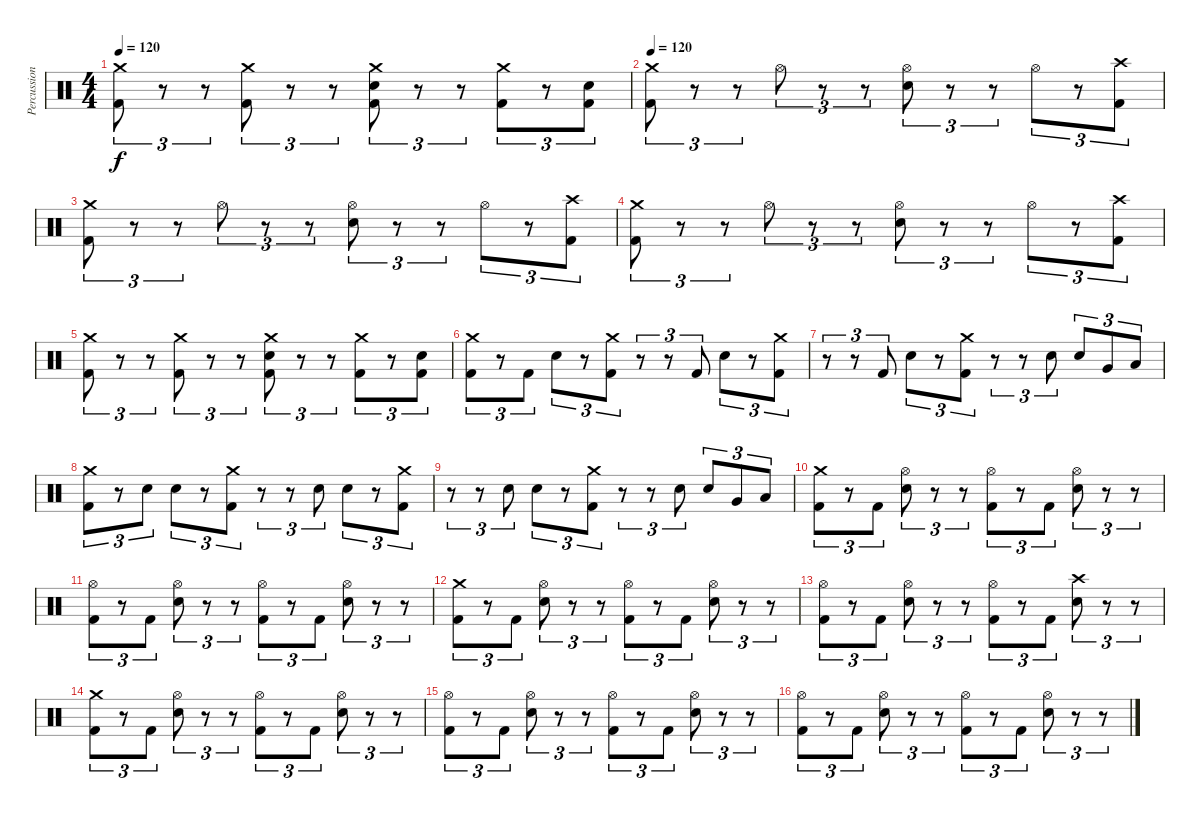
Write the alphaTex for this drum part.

\track ("Percussion" "Percussion") {instrument percussion}
\staff {score}
\articulation defaults
\ts (4 4)
\tempo 120
\clef neutral
\ks c
("Crash medium (hit)" "Kick (hit) 2").8{tu (3 2) dy f} r.8{tu (3 2)} r.8{tu (3 2)} ("Crash medium (hit)" "Kick (hit) 2").8{tu (3 2)} r.8{tu (3 2)} r.8{tu (3 2)} ("Crash medium (hit)" "Electric Snare (hit)" "Kick (hit) 2").8{tu (3 2)} r.8{tu (3 2)} r.8{tu (3 2)} ("Crash medium (hit)" "Kick (hit) 2").8{tu (3 2)} r.8{tu (3 2)} ("Electric Snare (hit)" "Kick (hit) 2").8{tu (3 2)} |
\tempo 120
("Crash medium (hit)" "Kick (hit) 2").8{tu (3 2)} r.8{tu (3 2)} r.8{tu (3 2)} "Hi-Hat (open)".8{tu (3 2)} r.8{tu (3 2)} r.8{tu (3 2)} ("Hi-Hat (open)" "Electric Snare (hit)").8{tu (3 2)} r.8{tu (3 2)} r.8{tu (3 2)} "Hi-Hat (open)".8{tu (3 2)} r.8{tu (3 2)} ("Crash high (hit)" "Kick (hit) 2").8{tu (3 2)} |
("Crash medium (hit)" "Kick (hit) 2").8{tu (3 2)} r.8{tu (3 2)} r.8{tu (3 2)} "Hi-Hat (open)".8{tu (3 2)} r.8{tu (3 2)} r.8{tu (3 2)} ("Hi-Hat (open)" "Electric Snare (hit)").8{tu (3 2)} r.8{tu (3 2)} r.8{tu (3 2)} "Hi-Hat (open)".8{tu (3 2)} r.8{tu (3 2)} ("Crash high (hit)" "Kick (hit) 2").8{tu (3 2)} |
("Crash medium (hit)" "Kick (hit) 2").8{tu (3 2)} r.8{tu (3 2)} r.8{tu (3 2)} "Hi-Hat (open)".8{tu (3 2)} r.8{tu (3 2)} r.8{tu (3 2)} ("Hi-Hat (open)" "Electric Snare (hit)").8{tu (3 2)} r.8{tu (3 2)} r.8{tu (3 2)} "Hi-Hat (open)".8{tu (3 2)} r.8{tu (3 2)} ("Crash high (hit)" "Kick (hit) 2").8{tu (3 2)} |
("Crash medium (hit)" "Kick (hit) 2").8{tu (3 2)} r.8{tu (3 2)} r.8{tu (3 2)} ("Crash medium (hit)" "Kick (hit) 2").8{tu (3 2)} r.8{tu (3 2)} r.8{tu (3 2)} ("Crash medium (hit)" "Electric Snare (hit)" "Kick (hit) 2").8{tu (3 2)} r.8{tu (3 2)} r.8{tu (3 2)} ("Crash medium (hit)" "Kick (hit) 2").8{tu (3 2)} r.8{tu (3 2)} ("Electric Snare (hit)" "Kick (hit) 2").8{tu (3 2)} |
("Crash medium (hit)" "Kick (hit) 2").8{tu (3 2)} r.8{tu (3 2)} "Kick (hit) 2".8{tu (3 2)} "Electric Snare (hit)".8{tu (3 2)} r.8{tu (3 2)} ("Crash medium (hit)" "Kick (hit) 2").8{tu (3 2)} r.8{tu (3 2)} r.8{tu (3 2)} "Kick (hit) 2".8{tu (3 2)} "Electric Snare (hit)".8{tu (3 2)} r.8{tu (3 2)} ("Crash medium (hit)" "Kick (hit) 2").8{tu (3 2)} |
r.8{tu (3 2)} r.8{tu (3 2)} "Kick (hit) 2".8{tu (3 2)} "Electric Snare (hit)".8{tu (3 2)} r.8{tu (3 2)} ("Crash medium (hit)" "Kick (hit) 2").8{tu (3 2)} r.8{tu (3 2)} r.8{tu (3 2)} "Electric Snare (hit)".8{tu (3 2)} "Electric Snare (hit)".8{tu (3 2)} "Very Low Tom (hit)".8{tu (3 2)} "Low Floor Tom (hit)".8{tu (3 2)} |
("Crash medium (hit)" "Kick (hit) 2").8{tu (3 2)} r.8{tu (3 2)} "Electric Snare (hit)".8{tu (3 2)} "Electric Snare (hit)".8{tu (3 2)} r.8{tu (3 2)} ("Crash medium (hit)" "Kick (hit) 2").8{tu (3 2)} r.8{tu (3 2)} r.8{tu (3 2)} "Electric Snare (hit)".8{tu (3 2)} "Electric Snare (hit)".8{tu (3 2)} r.8{tu (3 2)} ("Crash medium (hit)" "Kick (hit) 2").8{tu (3 2)} |
r.8{tu (3 2)} r.8{tu (3 2)} "Electric Snare (hit)".8{tu (3 2)} "Electric Snare (hit)".8{tu (3 2)} r.8{tu (3 2)} ("Crash medium (hit)" "Kick (hit) 2").8{tu (3 2)} r.8{tu (3 2)} r.8{tu (3 2)} "Electric Snare (hit)".8{tu (3 2)} "Electric Snare (hit)".8{tu (3 2)} "Very Low Tom (hit)".8{tu (3 2)} "Low Floor Tom (hit)".8{tu (3 2)} |
("Crash medium (hit)" "Kick (hit) 2").8{tu (3 2)} r.8{tu (3 2)} "Kick (hit) 2".8{tu (3 2)} ("Hi-Hat (open)" "Electric Snare (hit)").8{tu (3 2)} r.8{tu (3 2)} r.8{tu (3 2)} ("Hi-Hat (open)" "Kick (hit) 2").8{tu (3 2)} r.8{tu (3 2)} "Kick (hit) 2".8{tu (3 2)} ("Hi-Hat (open)" "Electric Snare (hit)").8{tu (3 2)} r.8{tu (3 2)} r.8{tu (3 2)} |
("Hi-Hat (open)" "Kick (hit) 2").8{tu (3 2)} r.8{tu (3 2)} "Kick (hit) 2".8{tu (3 2)} ("Hi-Hat (open)" "Electric Snare (hit)").8{tu (3 2)} r.8{tu (3 2)} r.8{tu (3 2)} ("Hi-Hat (open)" "Kick (hit) 2").8{tu (3 2)} r.8{tu (3 2)} "Kick (hit) 2".8{tu (3 2)} ("Hi-Hat (open)" "Electric Snare (hit)").8{tu (3 2)} r.8{tu (3 2)} r.8{tu (3 2)} |
("Crash medium (hit)" "Kick (hit) 2").8{tu (3 2)} r.8{tu (3 2)} "Kick (hit) 2".8{tu (3 2)} ("Hi-Hat (open)" "Electric Snare (hit)").8{tu (3 2)} r.8{tu (3 2)} r.8{tu (3 2)} ("Hi-Hat (open)" "Kick (hit) 2").8{tu (3 2)} r.8{tu (3 2)} "Kick (hit) 2".8{tu (3 2)} ("Hi-Hat (open)" "Electric Snare (hit)").8{tu (3 2)} r.8{tu (3 2)} r.8{tu (3 2)} |
("Hi-Hat (open)" "Kick (hit) 2").8{tu (3 2)} r.8{tu (3 2)} "Kick (hit) 2".8{tu (3 2)} ("Hi-Hat (open)" "Electric Snare (hit)").8{tu (3 2)} r.8{tu (3 2)} r.8{tu (3 2)} ("Hi-Hat (open)" "Kick (hit) 2").8{tu (3 2)} r.8{tu (3 2)} "Kick (hit) 2".8{tu (3 2)} ("Crash high (hit)" "Electric Snare (hit)").8{tu (3 2)} r.8{tu (3 2)} r.8{tu (3 2)} |
("Crash medium (hit)" "Kick (hit) 2").8{tu (3 2)} r.8{tu (3 2)} "Kick (hit) 2".8{tu (3 2)} ("Hi-Hat (open)" "Electric Snare (hit)").8{tu (3 2)} r.8{tu (3 2)} r.8{tu (3 2)} ("Hi-Hat (open)" "Kick (hit) 2").8{tu (3 2)} r.8{tu (3 2)} "Kick (hit) 2".8{tu (3 2)} ("Hi-Hat (open)" "Electric Snare (hit)").8{tu (3 2)} r.8{tu (3 2)} r.8{tu (3 2)} |
("Hi-Hat (open)" "Kick (hit) 2").8{tu (3 2)} r.8{tu (3 2)} "Kick (hit) 2".8{tu (3 2)} ("Hi-Hat (open)" "Electric Snare (hit)").8{tu (3 2)} r.8{tu (3 2)} r.8{tu (3 2)} ("Hi-Hat (open)" "Kick (hit) 2").8{tu (3 2)} r.8{tu (3 2)} "Kick (hit) 2".8{tu (3 2)} ("Hi-Hat (open)" "Electric Snare (hit)").8{tu (3 2)} r.8{tu (3 2)} r.8{tu (3 2)} |
("Hi-Hat (open)" "Kick (hit) 2").8{tu (3 2)} r.8{tu (3 2)} "Kick (hit) 2".8{tu (3 2)} ("Hi-Hat (open)" "Electric Snare (hit)").8{tu (3 2)} r.8{tu (3 2)} r.8{tu (3 2)} ("Hi-Hat (open)" "Kick (hit) 2").8{tu (3 2)} r.8{tu (3 2)} "Kick (hit) 2".8{tu (3 2)} ("Hi-Hat (open)" "Electric Snare (hit)").8{tu (3 2)} r.8{tu (3 2)} r.8{tu (3 2)}
